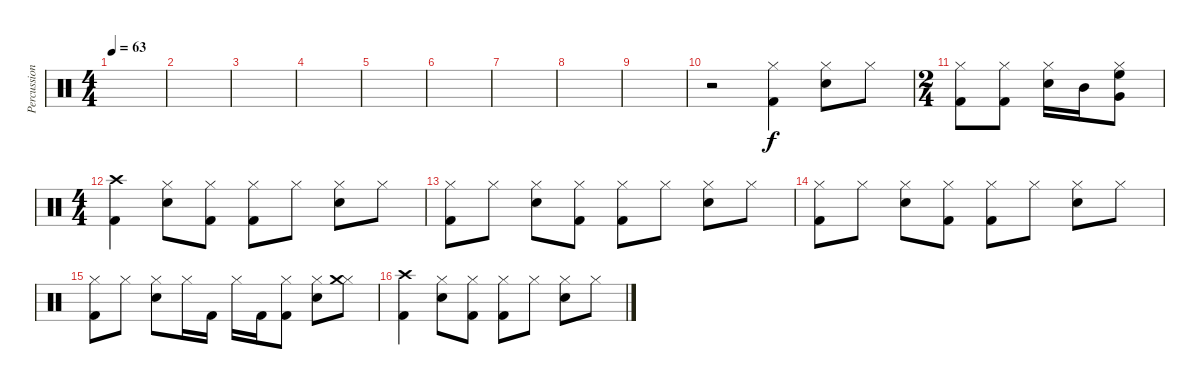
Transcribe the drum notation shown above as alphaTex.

\track ("Percussion" "Percussion") {instrument percussion}
\staff {score}
\articulation defaults
\ts (4 4)
\tempo 63
\clef neutral
\ks c
|
|
|
|
|
|
|
|
|
r.2 ("Hi-Hat (closed)" "Kick (hit) 2").4 ("Hi-Hat (closed)" "Electric Snare (hit)").8 "Hi-Hat (closed)".8 |
\ts (2 4)
("Hi-Hat (closed)" "Kick (hit) 2").8 ("Hi-Hat (closed)" "Kick (hit) 2").8 ("Hi-Hat (closed)" "Electric Snare (hit)").16 "Mid Tom (hit)".16 ("Hi-Hat (closed)" "Very Low Tom (hit)" "High Floor Tom (hit)").8 |
\ts (4 4)
("Crash high (hit)" "Kick (hit) 2").4 ("Hi-Hat (closed)" "Electric Snare (hit)").8 ("Hi-Hat (closed)" "Kick (hit) 2").8 ("Hi-Hat (closed)" "Kick (hit) 2").8 "Hi-Hat (closed)".8 ("Hi-Hat (closed)" "Electric Snare (hit)").8 "Hi-Hat (closed)".8 |
("Hi-Hat (closed)" "Kick (hit) 2").8 "Hi-Hat (closed)".8 ("Hi-Hat (closed)" "Electric Snare (hit)").8 ("Hi-Hat (closed)" "Kick (hit) 2").8 ("Hi-Hat (closed)" "Kick (hit) 2").8 "Hi-Hat (closed)".8 ("Hi-Hat (closed)" "Electric Snare (hit)").8 "Hi-Hat (closed)".8 |
("Hi-Hat (closed)" "Kick (hit) 2").8 "Hi-Hat (closed)".8 ("Hi-Hat (closed)" "Electric Snare (hit)").8 ("Hi-Hat (closed)" "Kick (hit) 2").8 ("Hi-Hat (closed)" "Kick (hit) 2").8 "Hi-Hat (closed)".8 ("Hi-Hat (closed)" "Electric Snare (hit)").8 "Hi-Hat (closed)".8 |
("Hi-Hat (closed)" "Kick (hit) 2").8 "Hi-Hat (closed)".8 ("Hi-Hat (closed)" "Electric Snare (hit)").8 "Hi-Hat (closed)".16 "Kick (hit) 2".16 "Hi-Hat (closed)".16 "Kick (hit) 2".16 ("Hi-Hat (closed)" "Kick (hit) 2").8 ("Hi-Hat (closed)" "Electric Snare (hit)").8 ("Hi-Hat (closed)" "Crash medium (hit)").8 |
("Crash high (hit)" "Kick (hit) 2").4 ("Hi-Hat (closed)" "Electric Snare (hit)").8 ("Hi-Hat (closed)" "Kick (hit) 2").8 ("Hi-Hat (closed)" "Kick (hit) 2").8 "Hi-Hat (closed)".8 ("Hi-Hat (closed)" "Electric Snare (hit)").8 "Hi-Hat (closed)".8
